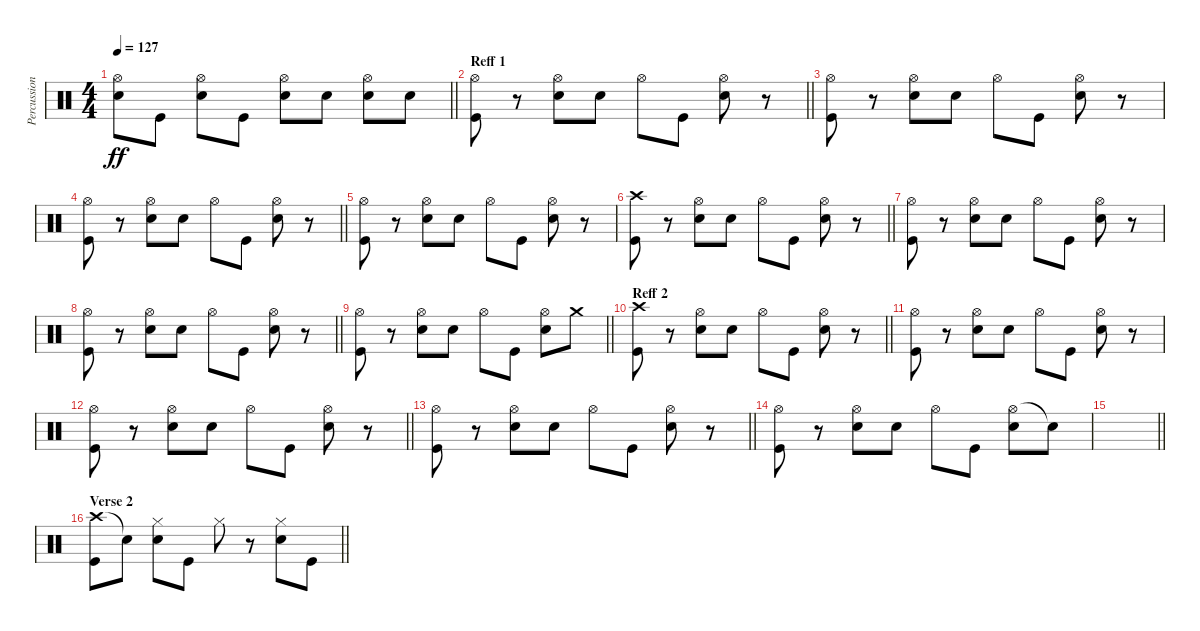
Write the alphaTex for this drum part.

\track ("Percussion" "Percussion") {instrument percussion}
\staff {score}
\articulation defaults
\ts (4 4)
\tempo 127
\clef neutral
\barLineRight lightlight
\ks c
("Hi-Hat (open)" "Electric Snare (hit)").8{dy ff} "Kick (hit)".8 ("Hi-Hat (open)" "Electric Snare (hit)").8 "Kick (hit)".8 ("Hi-Hat (open)" "Electric Snare (hit)").8 "Electric Snare (hit)".8 ("Hi-Hat (open)" "Electric Snare (hit)").8 "Electric Snare (hit)".8 |
\section ("" "Reff 1")
\barLineRight lightlight
("Hi-Hat (open)" "Kick (hit)").8 r.8 ("Hi-Hat (open)" "Electric Snare (hit)").8 "Electric Snare (hit)".8 "Hi-Hat (open)".8 "Kick (hit)".8 ("Hi-Hat (open)" "Electric Snare (hit)").8 r.8 |
("Hi-Hat (open)" "Kick (hit)").8 r.8 ("Hi-Hat (open)" "Electric Snare (hit)").8 "Electric Snare (hit)".8 "Hi-Hat (open)".8 "Kick (hit)".8 ("Hi-Hat (open)" "Electric Snare (hit)").8 r.8 |
\barLineRight lightlight
("Hi-Hat (open)" "Kick (hit)").8 r.8 ("Hi-Hat (open)" "Electric Snare (hit)").8 "Electric Snare (hit)".8 "Hi-Hat (open)".8 "Kick (hit)".8 ("Hi-Hat (open)" "Electric Snare (hit)").8 r.8 |
("Hi-Hat (open)" "Kick (hit)").8 r.8 ("Hi-Hat (open)" "Electric Snare (hit)").8 "Electric Snare (hit)".8 "Hi-Hat (open)".8 "Kick (hit)".8 ("Hi-Hat (open)" "Electric Snare (hit)").8 r.8 |
\barLineRight lightlight
("Crash high (hit)" "Kick (hit)").8 r.8 ("Hi-Hat (open)" "Electric Snare (hit)").8 "Electric Snare (hit)".8 "Hi-Hat (open)".8 "Kick (hit)".8 ("Hi-Hat (open)" "Electric Snare (hit)").8 r.8 |
("Hi-Hat (open)" "Kick (hit)").8 r.8 ("Hi-Hat (open)" "Electric Snare (hit)").8 "Electric Snare (hit)".8 "Hi-Hat (open)".8 "Kick (hit)".8 ("Hi-Hat (open)" "Electric Snare (hit)").8 r.8 |
\barLineRight lightlight
("Hi-Hat (open)" "Kick (hit)").8 r.8 ("Hi-Hat (open)" "Electric Snare (hit)").8 "Electric Snare (hit)".8 "Hi-Hat (open)".8 "Kick (hit)".8 ("Hi-Hat (open)" "Electric Snare (hit)").8 r.8 |
\barLineRight lightlight
("Hi-Hat (open)" "Kick (hit)").8 r.8 ("Hi-Hat (open)" "Electric Snare (hit)").8 "Electric Snare (hit)".8 "Hi-Hat (open)".8 "Kick (hit)".8 ("Hi-Hat (open)" "Electric Snare (hit)").8 "Crash medium (hit)".8 |
\section ("" "Reff 2")
\barLineRight lightlight
("Crash high (hit)" "Kick (hit)").8 r.8 ("Hi-Hat (open)" "Electric Snare (hit)").8 "Electric Snare (hit)".8 "Hi-Hat (open)".8 "Kick (hit)".8 ("Hi-Hat (open)" "Electric Snare (hit)").8 r.8 |
("Hi-Hat (open)" "Kick (hit)").8 r.8 ("Hi-Hat (open)" "Electric Snare (hit)").8 "Electric Snare (hit)".8 "Hi-Hat (open)".8 "Kick (hit)".8 ("Hi-Hat (open)" "Electric Snare (hit)").8 r.8 |
\barLineRight lightlight
("Hi-Hat (open)" "Kick (hit)").8 r.8 ("Hi-Hat (open)" "Electric Snare (hit)").8 "Electric Snare (hit)".8 "Hi-Hat (open)".8 "Kick (hit)".8 ("Hi-Hat (open)" "Electric Snare (hit)").8 r.8 |
\barLineRight lightlight
("Hi-Hat (open)" "Kick (hit)").8 r.8 ("Hi-Hat (open)" "Electric Snare (hit)").8 "Electric Snare (hit)".8 "Hi-Hat (open)".8 "Kick (hit)".8 ("Hi-Hat (open)" "Electric Snare (hit)").8 r.8 |
("Hi-Hat (open)" "Kick (hit)").8 r.8 ("Hi-Hat (open)" "Electric Snare (hit)").8 "Electric Snare (hit)".8 "Hi-Hat (open)".8 "Kick (hit)".8 ("Hi-Hat (open)" "Electric Snare (hit)").8 "Snare (hit)"{t}.8 |
\barLineRight lightlight
|
\section ("" "Verse 2")
\barLineRight lightlight
("Crash high (hit)" "Kick (hit)").8 "Snare (hit)"{t}.8 ("Hi-Hat (closed)" "Electric Snare (hit)").8 "Kick (hit)".8 "Hi-Hat (closed)".8 r.8 ("Hi-Hat (closed)" "Electric Snare (hit)").8 "Kick (hit)".8
